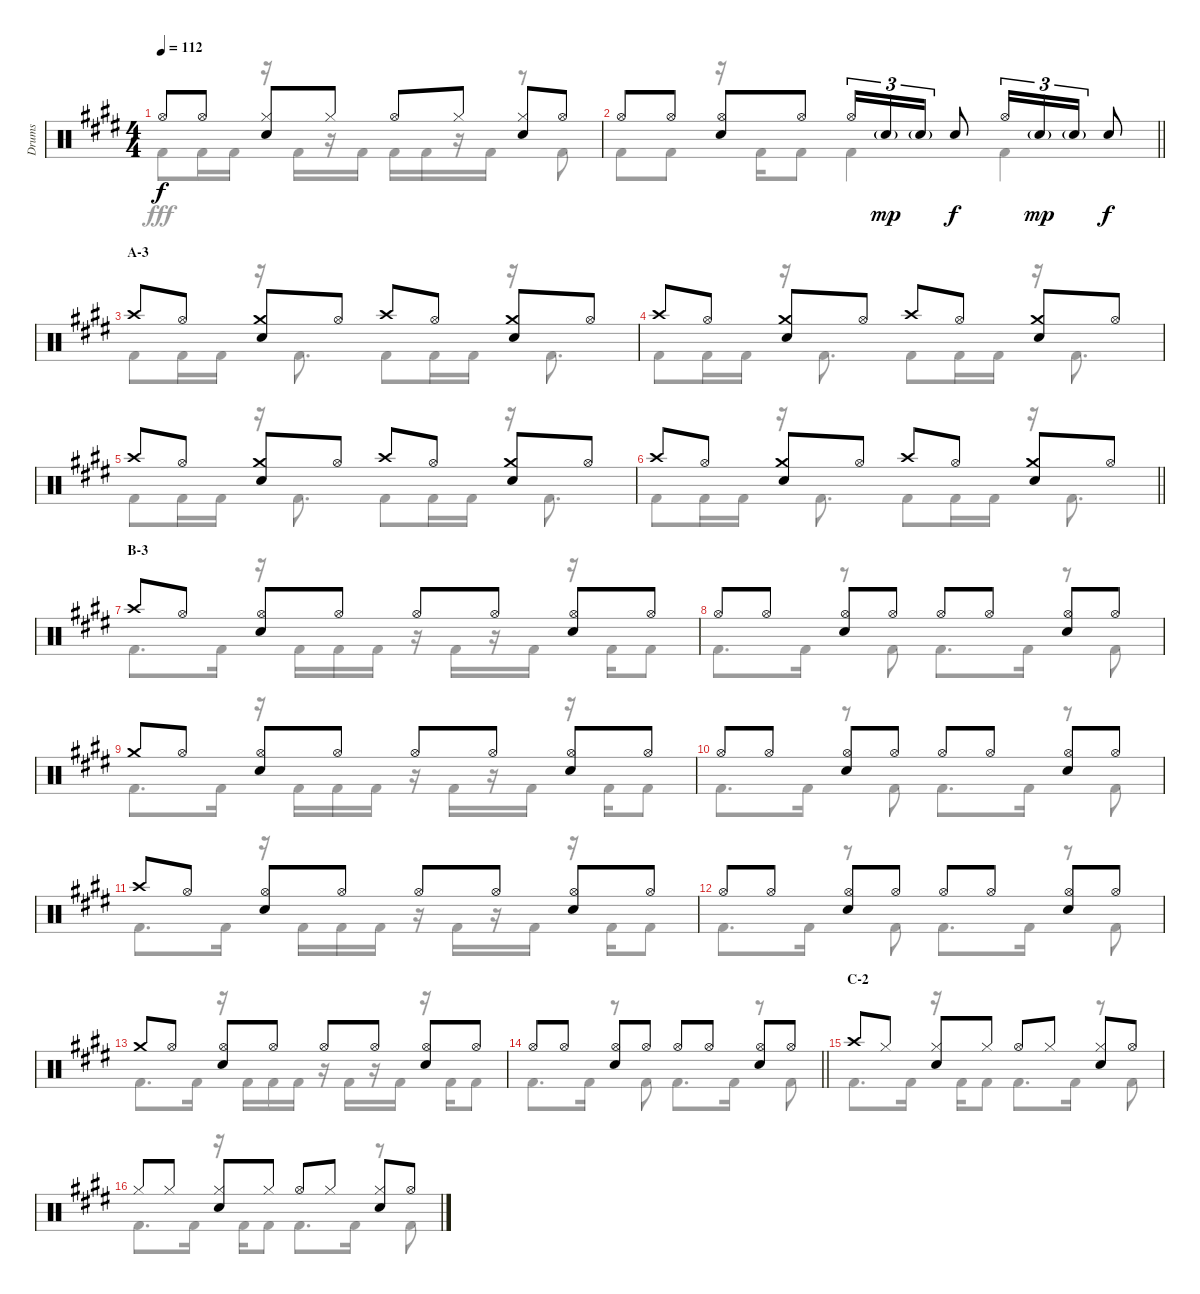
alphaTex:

\track ("Drums" "Drums") {instrument percussion}
\staff {score}
\articulation defaults
\voice
\ts (4 4)
\tempo 112
\clef neutral
\ks e "Hi-Hat (open)".8{dy f} "Hi-Hat (open)".8
("Hi-Hat (closed)" "Snare (hit) 2").8 "Hi-Hat (closed)".8 "Hi-Hat (open)".8 "Hi-Hat (closed)".8 ("Hi-Hat (closed)" "Snare (hit) 2").8 "Hi-Hat (open)".8 |
\barLineRight lightlight "Hi-Hat (open)".8 "Hi-Hat (open)".8
("Hi-Hat (open)" "Snare (hit) 2").8 "Hi-Hat (open)".8 "Hi-Hat (open)".16{tu (3 2)} "Snare (hit) 2"{g}.16{tu (3 2) dy mp} "Snare (hit) 2"{g}.16{tu (3 2)} "Snare (hit) 2".8{dy f} "Hi-Hat (open)".16{tu (3 2)} "Snare (hit) 2"{g}.16{tu (3 2) dy mp} "Snare (hit) 2"{g}.16{tu (3 2)} "Snare (hit) 2".8{dy f} |
\section ("" "A-3")
"Crash high (hit)".8 "Hi-Hat (open)".8 ("Crash medium (hit)" "Snare (hit) 2").8 "Hi-Hat (open)".8 "Crash high (hit)".8 "Hi-Hat (open)".8 ("Crash medium (hit)" "Snare (hit) 2").8 "Hi-Hat (open)".8 |
"Crash high (hit)".8 "Hi-Hat (open)".8 ("Crash medium (hit)" "Snare (hit) 2").8 "Hi-Hat (open)".8 "Crash high (hit)".8 "Hi-Hat (open)".8 ("Crash medium (hit)" "Snare (hit) 2").8 "Hi-Hat (open)".8 |
"Crash high (hit)".8 "Hi-Hat (open)".8 ("Crash medium (hit)" "Snare (hit) 2").8 "Hi-Hat (open)".8 "Crash high (hit)".8 "Hi-Hat (open)".8 ("Crash medium (hit)" "Snare (hit) 2").8 "Hi-Hat (open)".8 |
\barLineRight lightlight "Crash high (hit)".8 "Hi-Hat (open)".8
("Crash medium (hit)" "Snare (hit) 2").8 "Hi-Hat (open)".8 "Crash high (hit)".8 "Hi-Hat (open)".8 ("Crash medium (hit)" "Snare (hit) 2").8 "Hi-Hat (open)".8 |
\section ("" "B-3")
"Crash high (hit)".8 "Hi-Hat (open)".8 ("Hi-Hat (open)" "Snare (hit) 2").8 "Hi-Hat (open)".8 "Hi-Hat (open)".8 "Hi-Hat (open)".8 ("Hi-Hat (open)" "Snare (hit) 2").8 "Hi-Hat (open)".8 |
"Hi-Hat (open)".8 "Hi-Hat (open)".8 ("Hi-Hat (open)" "Snare (hit) 2").8 "Hi-Hat (open)".8 "Hi-Hat (open)".8 "Hi-Hat (open)".8 ("Hi-Hat (open)" "Snare (hit) 2").8 "Hi-Hat (open)".8 |
"Crash medium (hit)".8 "Hi-Hat (open)".8 ("Hi-Hat (open)" "Snare (hit) 2").8 "Hi-Hat (open)".8 "Hi-Hat (open)".8 "Hi-Hat (open)".8 ("Hi-Hat (open)" "Snare (hit) 2").8 "Hi-Hat (open)".8 |
"Hi-Hat (open)".8 "Hi-Hat (open)".8 ("Hi-Hat (open)" "Snare (hit) 2").8 "Hi-Hat (open)".8 "Hi-Hat (open)".8 "Hi-Hat (open)".8 ("Hi-Hat (open)" "Snare (hit) 2").8 "Hi-Hat (open)".8 |
"Crash high (hit)".8 "Hi-Hat (open)".8 ("Hi-Hat (open)" "Snare (hit) 2").8 "Hi-Hat (open)".8 "Hi-Hat (open)".8 "Hi-Hat (open)".8 ("Hi-Hat (open)" "Snare (hit) 2").8 "Hi-Hat (open)".8 |
"Hi-Hat (open)".8 "Hi-Hat (open)".8 ("Hi-Hat (open)" "Snare (hit) 2").8 "Hi-Hat (open)".8 "Hi-Hat (open)".8 "Hi-Hat (open)".8 ("Hi-Hat (open)" "Snare (hit) 2").8 "Hi-Hat (open)".8 |
"Crash medium (hit)".8 "Hi-Hat (open)".8 ("Hi-Hat (open)" "Snare (hit) 2").8 "Hi-Hat (open)".8 "Hi-Hat (open)".8 "Hi-Hat (open)".8 ("Hi-Hat (open)" "Snare (hit) 2").8 "Hi-Hat (open)".8 |
\barLineRight lightlight "Hi-Hat (open)".8 "Hi-Hat (open)".8
("Hi-Hat (open)" "Snare (hit) 2").8 "Hi-Hat (open)".8 "Hi-Hat (open)".8 "Hi-Hat (open)".8 ("Hi-Hat (open)" "Snare (hit) 2").8 "Hi-Hat (open)".8 |
\section ("" "C-2")
"Crash high (hit)".8 "Hi-Hat (closed)".8 ("Hi-Hat (closed)" "Snare (hit) 2").8 "Hi-Hat (closed)".8 "Hi-Hat (open)".8 "Hi-Hat (closed)".8 ("Hi-Hat (closed)" "Snare (hit) 2").8 "Hi-Hat (open)".8 |
"Hi-Hat (closed)".8 "Hi-Hat (closed)".8 ("Hi-Hat (closed)" "Snare (hit) 2").8 "Hi-Hat (closed)".8 "Hi-Hat (open)".8 "Hi-Hat (closed)".8 ("Hi-Hat (closed)" "Snare (hit) 2").8 "Hi-Hat (open)".8
\voice
\clef neutral
\ottava regular
\simile none
\ks e "Kick (hit) 2".8{dy fff} "Kick (hit) 2".16 "Kick (hit) 2".16
r.16 "Kick (hit) 2".16 r.16 "Kick (hit) 2".16 "Kick (hit) 2".16 "Kick (hit) 2".16 r.16 "Kick (hit) 2".16 r.8 "Kick (hit) 2".8 |
\barLineRight lightlight "Kick (hit) 2".8 "Kick (hit) 2".8
r.16 "Kick (hit) 2".16 "Kick (hit) 2".8 "Kick (hit) 2".4 "Kick (hit) 2".4 |
"Kick (hit) 2".8 "Kick (hit) 2".16 "Kick (hit) 2".16 r.16 "Kick (hit) 2".8{d} "Kick (hit) 2".8 "Kick (hit) 2".16 "Kick (hit) 2".16 r.16 "Kick (hit) 2".8{d} |
"Kick (hit) 2".8 "Kick (hit) 2".16 "Kick (hit) 2".16 r.16 "Kick (hit) 2".8{d} "Kick (hit) 2".8 "Kick (hit) 2".16 "Kick (hit) 2".16 r.16 "Kick (hit) 2".8{d} |
"Kick (hit) 2".8 "Kick (hit) 2".16 "Kick (hit) 2".16 r.16 "Kick (hit) 2".8{d} "Kick (hit) 2".8 "Kick (hit) 2".16 "Kick (hit) 2".16 r.16 "Kick (hit) 2".8{d} |
\barLineRight lightlight "Kick (hit) 2".8 "Kick (hit) 2".16 "Kick (hit) 2".16
r.16 "Kick (hit) 2".8{d} "Kick (hit) 2".8 "Kick (hit) 2".16 "Kick (hit) 2".16 r.16 "Kick (hit) 2".8{d} |
"Kick (hit) 2".8{d} "Kick (hit) 2".16 r.16 "Kick (hit) 2".16 "Kick (hit) 2".16 "Kick (hit) 2".16 r.16 "Kick (hit) 2".16 r.16 "Kick (hit) 2".16 r.16 "Kick (hit) 2".16 "Kick (hit) 2".8 |
"Kick (hit) 2".8{d} "Kick (hit) 2".16 r.8 "Kick (hit) 2".8 "Kick (hit) 2".8{d} "Kick (hit) 2".16 r.8 "Kick (hit) 2".8 |
"Kick (hit) 2".8{d} "Kick (hit) 2".16 r.16 "Kick (hit) 2".16 "Kick (hit) 2".16 "Kick (hit) 2".16 r.16 "Kick (hit) 2".16 r.16 "Kick (hit) 2".16 r.16 "Kick (hit) 2".16 "Kick (hit) 2".8 |
"Kick (hit) 2".8{d} "Kick (hit) 2".16 r.8 "Kick (hit) 2".8 "Kick (hit) 2".8{d} "Kick (hit) 2".16 r.8 "Kick (hit) 2".8 |
"Kick (hit) 2".8{d} "Kick (hit) 2".16 r.16 "Kick (hit) 2".16 "Kick (hit) 2".16 "Kick (hit) 2".16 r.16 "Kick (hit) 2".16 r.16 "Kick (hit) 2".16 r.16 "Kick (hit) 2".16 "Kick (hit) 2".8 |
"Kick (hit) 2".8{d} "Kick (hit) 2".16 r.8 "Kick (hit) 2".8 "Kick (hit) 2".8{d} "Kick (hit) 2".16 r.8 "Kick (hit) 2".8 |
"Kick (hit) 2".8{d} "Kick (hit) 2".16 r.16 "Kick (hit) 2".16 "Kick (hit) 2".16 "Kick (hit) 2".16 r.16 "Kick (hit) 2".16 r.16 "Kick (hit) 2".16 r.16 "Kick (hit) 2".16 "Kick (hit) 2".8 |
\barLineRight lightlight "Kick (hit) 2".8{d} "Kick (hit) 2".16
r.8 "Kick (hit) 2".8 "Kick (hit) 2".8{d} "Kick (hit) 2".16 r.8 "Kick (hit) 2".8 |
"Kick (hit) 2".8{d} "Kick (hit) 2".16 r.16 "Kick (hit) 2".16 "Kick (hit) 2".8 "Kick (hit) 2".8{d} "Kick (hit) 2".16 r.8 "Kick (hit) 2".8 |
"Kick (hit) 2".8{d} "Kick (hit) 2".16 r.16 "Kick (hit) 2".16 "Kick (hit) 2".8 "Kick (hit) 2".8{d} "Kick (hit) 2".16 r.8 "Kick (hit) 2".8
